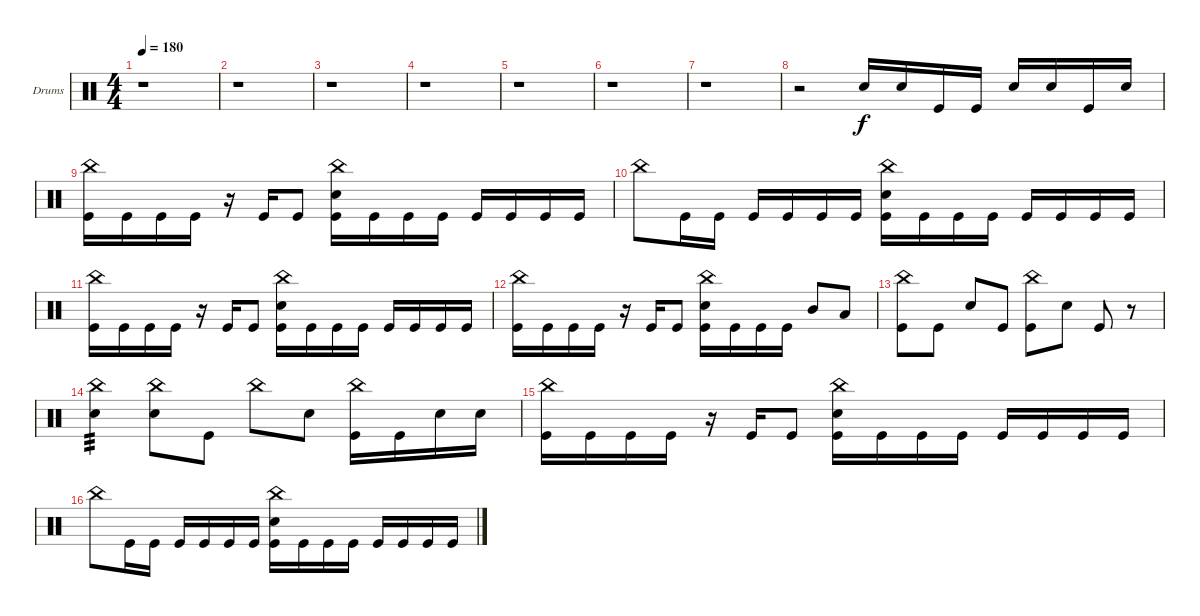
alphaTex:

\defaultSystemsLayout 4
\bracketExtendMode groupsimilarinstruments
\firstSystemTrackNameOrientation horizontal
\otherSystemsTrackNameOrientation horizontal
\track ("Drumkit" "Drums") {instrument percussion}
\staff {score}
\articulation defaults
\ts (4 4)
\tempo 180
\clef neutral
\ks c
r.1{dy f} |
r.1 |
r.1 |
r.1 |
r.1 |
r.1 |
r.1 |
r.2 "Snare (hit) 2".16 "Snare (hit) 2".16 "Kick (hit)".16 "Kick (hit)".16 "Snare (hit) 2".16 "Snare (hit) 2".16 "Kick (hit)".16 "Snare (hit) 2".16 |
("Kick (hit)" "China (hit)").16 "Kick (hit)".16 "Kick (hit)".16 "Kick (hit)".16 r.16 "Kick (hit)".16 "Kick (hit)".8 ("Kick (hit)" "China (hit)" "Snare (hit) 2").16 "Kick (hit)".16 "Kick (hit)".16 "Kick (hit)".16 "Kick (hit)".16 "Kick (hit)".16 "Kick (hit)".16 "Kick (hit)".16 |
"China (hit)".8 "Kick (hit)".16 "Kick (hit)".16 "Kick (hit)".16 "Kick (hit)".16 "Kick (hit)".16 "Kick (hit)".16 ("Kick (hit)" "China (hit)" "Snare (hit) 2").16 "Kick (hit)".16 "Kick (hit)".16 "Kick (hit)".16 "Kick (hit)".16 "Kick (hit)".16 "Kick (hit)".16 "Kick (hit)".16 |
("Kick (hit)" "China (hit)").16 "Kick (hit)".16 "Kick (hit)".16 "Kick (hit)".16 r.16 "Kick (hit)".16 "Kick (hit)".8 ("Kick (hit)" "China (hit)" "Snare (hit) 2").16 "Kick (hit)".16 "Kick (hit)".16 "Kick (hit)".16 "Kick (hit)".16 "Kick (hit)".16 "Kick (hit)".16 "Kick (hit)".16 |
("China (hit)" "Kick (hit)").16 "Kick (hit)".16 "Kick (hit)".16 "Kick (hit)".16 r.16 "Kick (hit)".16 "Kick (hit)".8 ("Kick (hit)" "China (hit)" "Snare (hit) 2").16 "Kick (hit)".16 "Kick (hit)".16 "Kick (hit)".16 "Mid Tom (hit)".8 "Low Tom (hit)".8 |
("Kick (hit)" "China (hit)").8 "Kick (hit)".8 "Snare (hit) 2".8 "Kick (hit)".8 ("Kick (hit)" "China (hit)").8 "Snare (hit) 2".8 "Kick (hit)".8 r.8 |
("Snare (hit) 2" "China (hit)").4{tp 3} ("Snare (hit) 2" "China (hit)").8 "Kick (hit)".8 "China (hit)".8 "Snare (hit) 2".8 ("Kick (hit)" "China (hit)").16 "Kick (hit)".16 "Snare (hit) 2".16 "Snare (hit) 2".16 |
("Kick (hit)" "China (hit)").16 "Kick (hit)".16 "Kick (hit)".16 "Kick (hit)".16 r.16 "Kick (hit)".16 "Kick (hit)".8 ("Kick (hit)" "China (hit)" "Snare (hit) 2").16 "Kick (hit)".16 "Kick (hit)".16 "Kick (hit)".16 "Kick (hit)".16 "Kick (hit)".16 "Kick (hit)".16 "Kick (hit)".16 |
"China (hit)".8 "Kick (hit)".16 "Kick (hit)".16 "Kick (hit)".16 "Kick (hit)".16 "Kick (hit)".16 "Kick (hit)".16 ("Kick (hit)" "China (hit)" "Snare (hit) 2").16 "Kick (hit)".16 "Kick (hit)".16 "Kick (hit)".16 "Kick (hit)".16 "Kick (hit)".16 "Kick (hit)".16 "Kick (hit)".16
